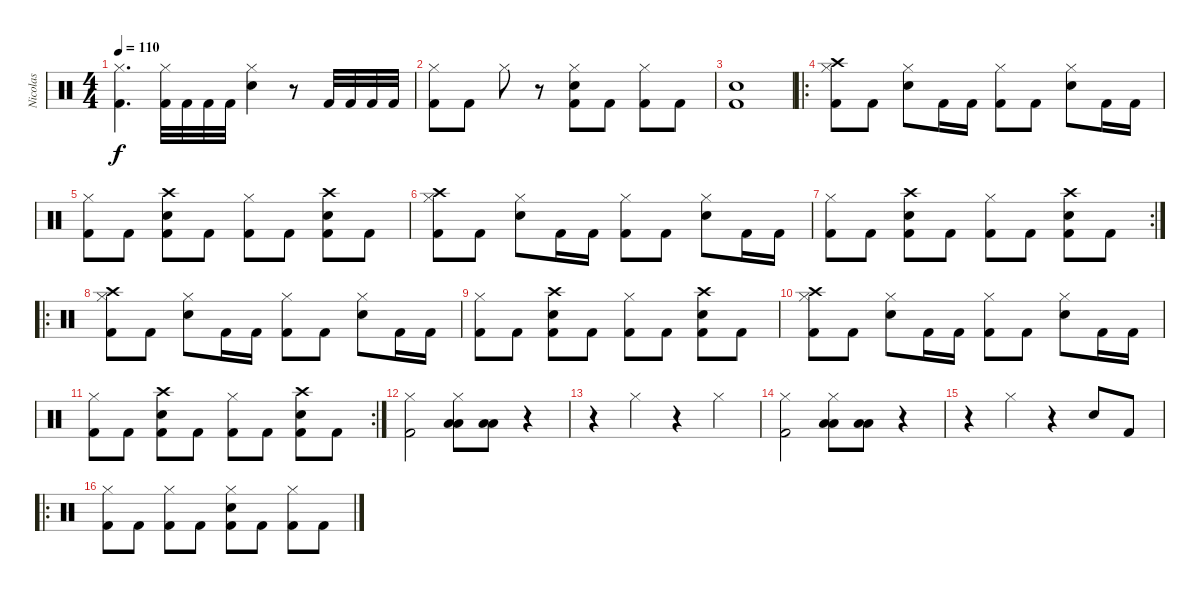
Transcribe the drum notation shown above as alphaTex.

\track ("Nicolas" "Nicolas") {instrument percussion}
\staff {score}
\articulation defaults
\ts (4 4)
\tempo 110
\clef neutral
\ks c
("Hi-Hat (closed)" "Kick (hit) 2").4{d dy f} ("Kick (hit) 2" "Hi-Hat (closed)").32 "Kick (hit) 2".32 "Kick (hit) 2".32 "Kick (hit) 2".32 ("Snare (hit) 2" "Hi-Hat (closed)").4 r.8 "Kick (hit) 2".32 "Kick (hit) 2".32 "Kick (hit) 2".32 "Kick (hit) 2".32 |
("Kick (hit) 2" "Hi-Hat (closed)").8 "Kick (hit) 2".8 "Hi-Hat (closed)".8 r.8 ("Kick (hit) 2" "Snare (hit) 2" "Hi-Hat (closed)").8 "Kick (hit) 2".8 ("Kick (hit) 2" "Hi-Hat (closed)").8 "Kick (hit) 2".8 |
("Kick (hit) 2" "Snare (hit) 2").1 |
\ro
("Crash high (hit)" "Hi-Hat (closed)" "Kick (hit) 2").8 "Kick (hit) 2".8 ("Hi-Hat (closed)" "Snare (hit) 2").8 "Kick (hit) 2".16 "Kick (hit) 2".16 ("Hi-Hat (closed)" "Kick (hit) 2").8 "Kick (hit) 2".8 ("Hi-Hat (closed)" "Snare (hit) 2").8 "Kick (hit) 2".16 "Kick (hit) 2".16 |
("Hi-Hat (closed)" "Kick (hit) 2").8 "Kick (hit) 2".8 ("Crash high (hit)" "Snare (hit) 2" "Kick (hit) 2").8 "Kick (hit) 2".8 ("Hi-Hat (closed)" "Kick (hit) 2").8 "Kick (hit) 2".8 ("Crash high (hit)" "Snare (hit) 2" "Kick (hit) 2").8 "Kick (hit) 2".8 |
("Crash high (hit)" "Hi-Hat (closed)" "Kick (hit) 2").8 "Kick (hit) 2".8 ("Hi-Hat (closed)" "Snare (hit) 2").8 "Kick (hit) 2".16 "Kick (hit) 2".16 ("Hi-Hat (closed)" "Kick (hit) 2").8 "Kick (hit) 2".8 ("Hi-Hat (closed)" "Snare (hit) 2").8 "Kick (hit) 2".16 "Kick (hit) 2".16 |
\rc 2
("Hi-Hat (closed)" "Kick (hit) 2").8 "Kick (hit) 2".8 ("Crash high (hit)" "Snare (hit) 2" "Kick (hit) 2").8 "Kick (hit) 2".8 ("Hi-Hat (closed)" "Kick (hit) 2").8 "Kick (hit) 2".8 ("Crash high (hit)" "Snare (hit) 2" "Kick (hit) 2").8 "Kick (hit) 2".8 |
\ro
("Crash high (hit)" "Hi-Hat (closed)" "Kick (hit) 2").8 "Kick (hit) 2".8 ("Hi-Hat (closed)" "Snare (hit) 2").8 "Kick (hit) 2".16 "Kick (hit) 2".16 ("Hi-Hat (closed)" "Kick (hit) 2").8 "Kick (hit) 2".8 ("Hi-Hat (closed)" "Snare (hit) 2").8 "Kick (hit) 2".16 "Kick (hit) 2".16 |
("Hi-Hat (closed)" "Kick (hit) 2").8 "Kick (hit) 2".8 ("Crash high (hit)" "Snare (hit) 2" "Kick (hit) 2").8 "Kick (hit) 2".8 ("Hi-Hat (closed)" "Kick (hit) 2").8 "Kick (hit) 2".8 ("Crash high (hit)" "Snare (hit) 2" "Kick (hit) 2").8 "Kick (hit) 2".8 |
("Crash high (hit)" "Hi-Hat (closed)" "Kick (hit) 2").8 "Kick (hit) 2".8 ("Hi-Hat (closed)" "Snare (hit) 2").8 "Kick (hit) 2".16 "Kick (hit) 2".16 ("Hi-Hat (closed)" "Kick (hit) 2").8 "Kick (hit) 2".8 ("Hi-Hat (closed)" "Snare (hit) 2").8 "Kick (hit) 2".16 "Kick (hit) 2".16 |
\rc 2
("Hi-Hat (closed)" "Kick (hit) 2").8 "Kick (hit) 2".8 ("Crash high (hit)" "Snare (hit) 2" "Kick (hit) 2").8 "Kick (hit) 2".8 ("Hi-Hat (closed)" "Kick (hit) 2").8 "Kick (hit) 2".8 ("Crash high (hit)" "Snare (hit) 2" "Kick (hit) 2").8 "Kick (hit) 2".8 |
("Kick (hit) 2" "Hi-Hat (closed)").2 ("Low Floor Tom (hit)" "Low Tom (hit)" "Hi-Hat (closed)").8 ("Low Floor Tom (hit)" "Low Tom (hit)").8 r.4 |
r.4 "Hi-Hat (closed)".4 r.4 "Hi-Hat (closed)".4 |
("Kick (hit) 2" "Hi-Hat (closed)").2 ("Low Floor Tom (hit)" "Low Tom (hit)" "Hi-Hat (closed)").8 ("Low Floor Tom (hit)" "Low Tom (hit)").8 r.4 |
r.4 "Hi-Hat (closed)".4 r.4 "Snare (hit) 2".8 "Kick (hit) 2".8 |
\ro
("Kick (hit) 2" "Hi-Hat (closed)").8 "Kick (hit) 2".8 ("Kick (hit) 2" "Hi-Hat (closed)").8 "Kick (hit) 2".8 ("Kick (hit) 2" "Snare (hit) 2" "Hi-Hat (closed)").8 "Kick (hit) 2".8 ("Kick (hit) 2" "Hi-Hat (closed)").8 "Kick (hit) 2".8
